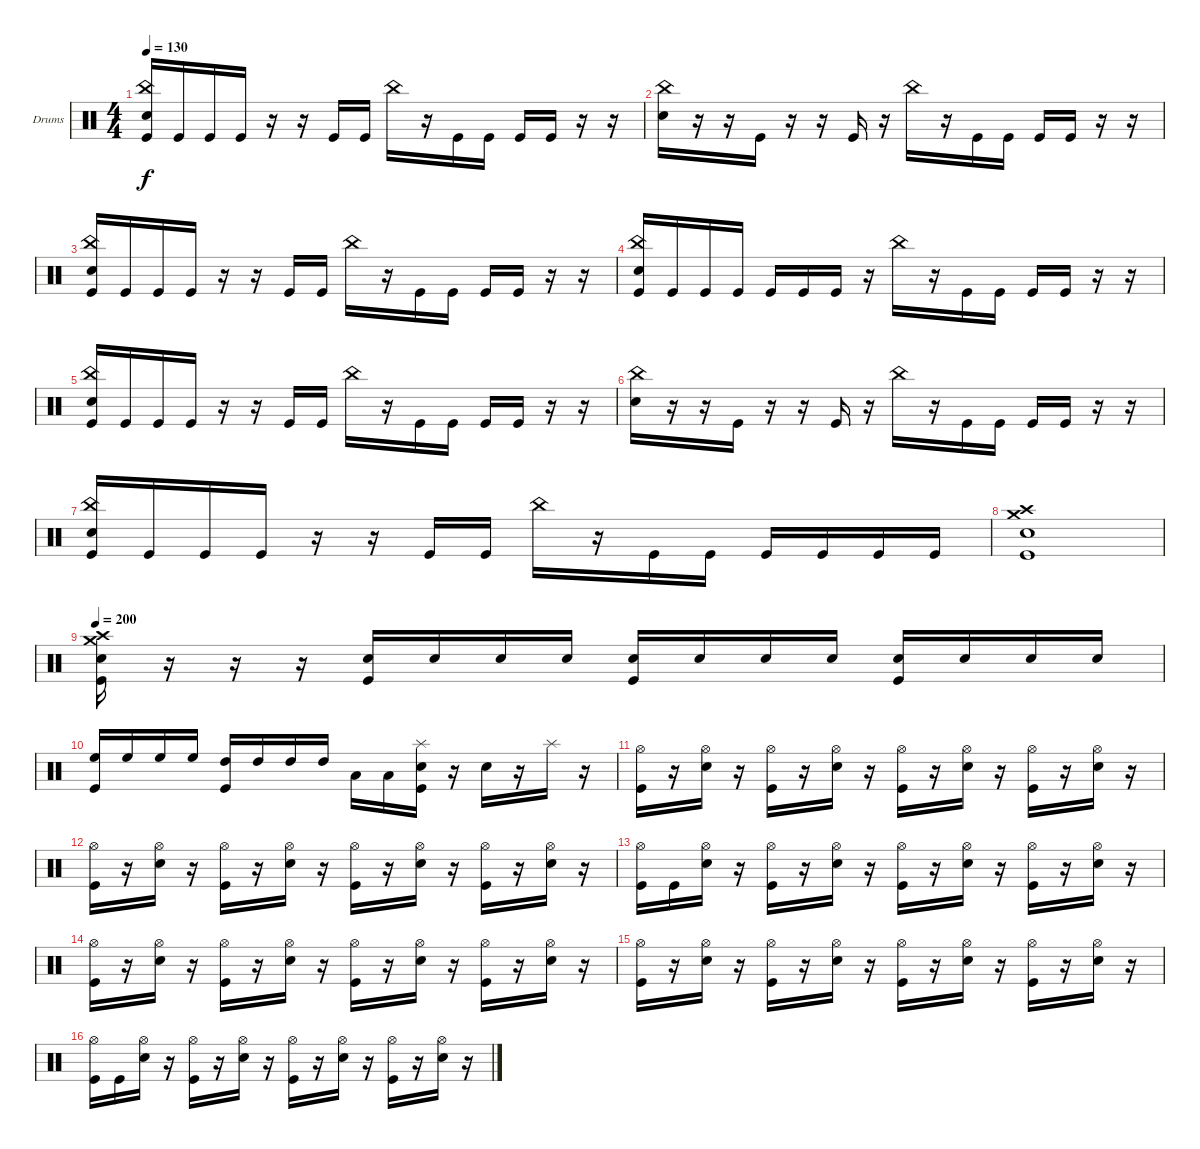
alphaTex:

\defaultSystemsLayout 4
\bracketExtendMode groupsimilarinstruments
\firstSystemTrackNameOrientation horizontal
\otherSystemsTrackNameOrientation horizontal
\track ("Drumkit" "Drums") {instrument percussion}
\staff {score}
\articulation defaults
\ts (4 4)
\tempo 130
\clef neutral
\ks c
("Kick (hit)" "China (hit)" "Snare (hit) 2").16{dy f} "Kick (hit)".16 "Kick (hit)".16 "Kick (hit)".16 r.16 r.16 "Kick (hit)".16 "Kick (hit)".16 "China (hit)".16 r.16 "Kick (hit)".16 "Kick (hit)".16 "Kick (hit)".16 "Kick (hit)".16 r.16 r.16 |
("Snare (hit) 2" "China (hit)").16 r.16 r.16 "Kick (hit)".16 r.16 r.16 "Kick (hit)".16 r.16 "China (hit)".16 r.16 "Kick (hit)".16 "Kick (hit)".16 "Kick (hit)".16 "Kick (hit)".16 r.16 r.16 |
("Kick (hit)" "China (hit)" "Snare (hit) 2").16 "Kick (hit)".16 "Kick (hit)".16 "Kick (hit)".16 r.16 r.16 "Kick (hit)".16 "Kick (hit)".16 "China (hit)".16 r.16 "Kick (hit)".16 "Kick (hit)".16 "Kick (hit)".16 "Kick (hit)".16 r.16 r.16 |
("Snare (hit) 2" "China (hit)" "Kick (hit)").16 "Kick (hit)".16 "Kick (hit)".16 "Kick (hit)".16 "Kick (hit)".16 "Kick (hit)".16 "Kick (hit)".16 r.16 "China (hit)".16 r.16 "Kick (hit)".16 "Kick (hit)".16 "Kick (hit)".16 "Kick (hit)".16 r.16 r.16 |
("Kick (hit)" "China (hit)" "Snare (hit) 2").16 "Kick (hit)".16 "Kick (hit)".16 "Kick (hit)".16 r.16 r.16 "Kick (hit)".16 "Kick (hit)".16 "China (hit)".16 r.16 "Kick (hit)".16 "Kick (hit)".16 "Kick (hit)".16 "Kick (hit)".16 r.16 r.16 |
("Snare (hit) 2" "China (hit)").16 r.16 r.16 "Kick (hit)".16 r.16 r.16 "Kick (hit)".16 r.16 "China (hit)".16 r.16 "Kick (hit)".16 "Kick (hit)".16 "Kick (hit)".16 "Kick (hit)".16 r.16 r.16 |
("Kick (hit)" "China (hit)" "Snare (hit) 2").16 "Kick (hit)".16 "Kick (hit)".16 "Kick (hit)".16 r.16 r.16 "Kick (hit)".16 "Kick (hit)".16 "China (hit)".16 r.16 "Kick (hit)".16 "Kick (hit)".16 "Kick (hit)".16 "Kick (hit)".16 "Kick (hit)".16 "Kick (hit)".16 |
("Kick (hit)" "Snare (hit) 2" "Crash medium (hit)" "Crash high (hit)").1 |
\tempo 200
("Crash high (hit)" "Crash medium (hit)" "Snare (hit) 2" "Kick (hit)").16 r.16 r.16 r.16 ("Kick (hit)" "Snare (hit) 2").16 "Snare (hit) 2".16 "Snare (hit) 2".16 "Snare (hit) 2".16 ("Snare (hit) 2" "Kick (hit)").16 "Snare (hit) 2".16 "Snare (hit) 2".16 "Snare (hit) 2".16 ("Snare (hit) 2" "Kick (hit)").16 "Snare (hit) 2".16 "Snare (hit) 2".16 "Snare (hit) 2".16 |
("Kick (hit)" "High Floor Tom (hit)").16 "High Floor Tom (hit)".16 "High Floor Tom (hit)".16 "High Floor Tom (hit)".16 ("High Tom (hit)" "Kick (hit)").16 "High Tom (hit)".16 "High Tom (hit)".16 "High Tom (hit)".16 "Low Tom (hit)".16 "Low Tom (hit)".16 ("Kick (hit)" "Snare (hit) 2" "Splash (hit)").16 r.16 "Snare (hit) 2".16 r.16 "Splash (hit)".16 r.16 |
("Kick (hit)" "Hi-Hat (open)").16 r.16 ("Snare (hit) 2" "Hi-Hat (open)").16 r.16 ("Kick (hit)" "Hi-Hat (open)").16 r.16 ("Snare (hit) 2" "Hi-Hat (open)").16 r.16 ("Kick (hit)" "Hi-Hat (open)").16 r.16 ("Snare (hit) 2" "Hi-Hat (open)").16 r.16 ("Kick (hit)" "Hi-Hat (open)").16 r.16 ("Snare (hit) 2" "Hi-Hat (open)").16 r.16 |
("Kick (hit)" "Hi-Hat (open)").16 r.16 ("Snare (hit) 2" "Hi-Hat (open)").16 r.16 ("Kick (hit)" "Hi-Hat (open)").16 r.16 ("Snare (hit) 2" "Hi-Hat (open)").16 r.16 ("Kick (hit)" "Hi-Hat (open)").16 r.16 ("Snare (hit) 2" "Hi-Hat (open)").16 r.16 ("Kick (hit)" "Hi-Hat (open)").16 r.16 ("Snare (hit) 2" "Hi-Hat (open)").16 r.16 |
("Kick (hit)" "Hi-Hat (open)").16 "Kick (hit)".16 ("Snare (hit) 2" "Hi-Hat (open)").16 r.16 ("Kick (hit)" "Hi-Hat (open)").16 r.16 ("Snare (hit) 2" "Hi-Hat (open)").16 r.16 ("Kick (hit)" "Hi-Hat (open)").16 r.16 ("Snare (hit) 2" "Hi-Hat (open)").16 r.16 ("Kick (hit)" "Hi-Hat (open)").16 r.16 ("Snare (hit) 2" "Hi-Hat (open)").16 r.16 |
("Kick (hit)" "Hi-Hat (open)").16 r.16 ("Snare (hit) 2" "Hi-Hat (open)").16 r.16 ("Kick (hit)" "Hi-Hat (open)").16 r.16 ("Snare (hit) 2" "Hi-Hat (open)").16 r.16 ("Kick (hit)" "Hi-Hat (open)").16 r.16 ("Snare (hit) 2" "Hi-Hat (open)").16 r.16 ("Kick (hit)" "Hi-Hat (open)").16 r.16 ("Snare (hit) 2" "Hi-Hat (open)").16 r.16 |
("Kick (hit)" "Hi-Hat (open)").16 r.16 ("Snare (hit) 2" "Hi-Hat (open)").16 r.16 ("Kick (hit)" "Hi-Hat (open)").16 r.16 ("Snare (hit) 2" "Hi-Hat (open)").16 r.16 ("Kick (hit)" "Hi-Hat (open)").16 r.16 ("Snare (hit) 2" "Hi-Hat (open)").16 r.16 ("Kick (hit)" "Hi-Hat (open)").16 r.16 ("Snare (hit) 2" "Hi-Hat (open)").16 r.16 |
("Kick (hit)" "Hi-Hat (open)").16 "Kick (hit)".16 ("Snare (hit) 2" "Hi-Hat (open)").16 r.16 ("Kick (hit)" "Hi-Hat (open)").16 r.16 ("Snare (hit) 2" "Hi-Hat (open)").16 r.16 ("Kick (hit)" "Hi-Hat (open)").16 r.16 ("Snare (hit) 2" "Hi-Hat (open)").16 r.16 ("Kick (hit)" "Hi-Hat (open)").16 r.16 ("Snare (hit) 2" "Hi-Hat (open)").16 r.16
